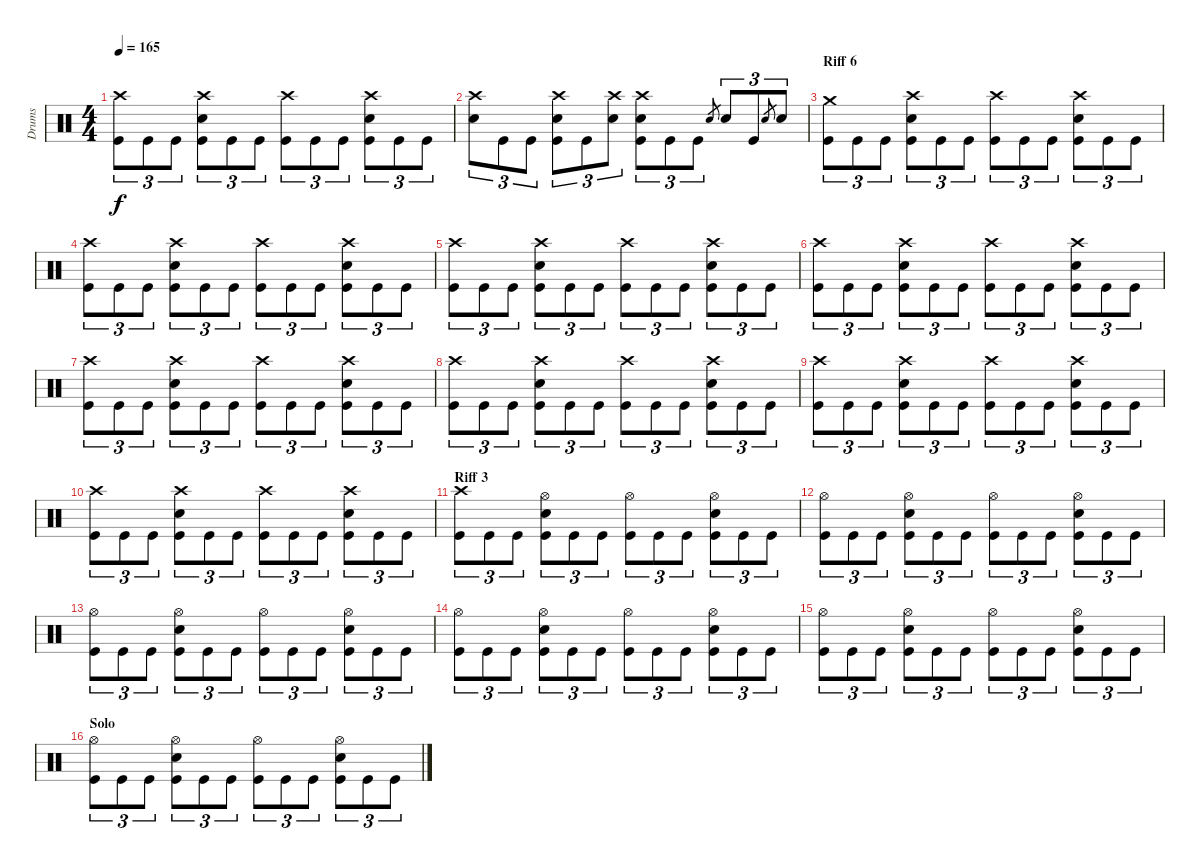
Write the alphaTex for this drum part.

\track ("Drums" "Drums") {instrument percussion}
\staff {score}
\articulation defaults
\ts (4 4)
\tempo 165
\clef neutral
\ks c
("Crash high (hit)" "Kick (hit)").8{tu (3 2) dy f} "Kick (hit)".8{tu (3 2)} "Kick (hit)".8{tu (3 2)} ("Crash high (hit)" "Electric Snare (hit)" "Kick (hit)").8{tu (3 2)} "Kick (hit)".8{tu (3 2)} "Kick (hit)".8{tu (3 2)} ("Crash high (hit)" "Kick (hit)").8{tu (3 2)} "Kick (hit)".8{tu (3 2)} "Kick (hit)".8{tu (3 2)} ("Crash high (hit)" "Electric Snare (hit)" "Kick (hit)").8{tu (3 2)} "Kick (hit)".8{tu (3 2)} "Kick (hit)".8{tu (3 2)} |
("Crash high (hit)" "Electric Snare (hit)").8{tu (3 2)} "Kick (hit)".8{tu (3 2)} "Kick (hit)".8{tu (3 2)} ("Crash high (hit)" "Electric Snare (hit)" "Kick (hit)").8{tu (3 2)} "Kick (hit)".8{tu (3 2)} ("Crash high (hit)" "Electric Snare (hit)").8{tu (3 2)} ("Crash high (hit)" "Electric Snare (hit)" "Kick (hit)").8{tu (3 2)} "Kick (hit)".8{tu (3 2)} "Kick (hit)".8{tu (3 2)} "Electric Snare (hit)".8{gr} "Electric Snare (hit)".8{tu (3 2)} "Kick (hit)".8{tu (3 2)} "Electric Snare (hit)".8{gr} "Electric Snare (hit)".8{tu (3 2)} |
\section ("" "Riff 6")
("Crash medium (hit)" "Kick (hit)").8{tu (3 2)} "Kick (hit)".8{tu (3 2)} "Kick (hit)".8{tu (3 2)} ("Crash high (hit)" "Electric Snare (hit)" "Kick (hit)").8{tu (3 2)} "Kick (hit)".8{tu (3 2)} "Kick (hit)".8{tu (3 2)} ("Crash high (hit)" "Kick (hit)").8{tu (3 2)} "Kick (hit)".8{tu (3 2)} "Kick (hit)".8{tu (3 2)} ("Crash high (hit)" "Electric Snare (hit)" "Kick (hit)").8{tu (3 2)} "Kick (hit)".8{tu (3 2)} "Kick (hit)".8{tu (3 2)} |
("Crash high (hit)" "Kick (hit)").8{tu (3 2)} "Kick (hit)".8{tu (3 2)} "Kick (hit)".8{tu (3 2)} ("Crash high (hit)" "Electric Snare (hit)" "Kick (hit)").8{tu (3 2)} "Kick (hit)".8{tu (3 2)} "Kick (hit)".8{tu (3 2)} ("Crash high (hit)" "Kick (hit)").8{tu (3 2)} "Kick (hit)".8{tu (3 2)} "Kick (hit)".8{tu (3 2)} ("Crash high (hit)" "Electric Snare (hit)" "Kick (hit)").8{tu (3 2)} "Kick (hit)".8{tu (3 2)} "Kick (hit)".8{tu (3 2)} |
("Crash high (hit)" "Kick (hit)").8{tu (3 2)} "Kick (hit)".8{tu (3 2)} "Kick (hit)".8{tu (3 2)} ("Crash high (hit)" "Electric Snare (hit)" "Kick (hit)").8{tu (3 2)} "Kick (hit)".8{tu (3 2)} "Kick (hit)".8{tu (3 2)} ("Crash high (hit)" "Kick (hit)").8{tu (3 2)} "Kick (hit)".8{tu (3 2)} "Kick (hit)".8{tu (3 2)} ("Crash high (hit)" "Electric Snare (hit)" "Kick (hit)").8{tu (3 2)} "Kick (hit)".8{tu (3 2)} "Kick (hit)".8{tu (3 2)} |
("Crash high (hit)" "Kick (hit)").8{tu (3 2)} "Kick (hit)".8{tu (3 2)} "Kick (hit)".8{tu (3 2)} ("Crash high (hit)" "Electric Snare (hit)" "Kick (hit)").8{tu (3 2)} "Kick (hit)".8{tu (3 2)} "Kick (hit)".8{tu (3 2)} ("Crash high (hit)" "Kick (hit)").8{tu (3 2)} "Kick (hit)".8{tu (3 2)} "Kick (hit)".8{tu (3 2)} ("Crash high (hit)" "Electric Snare (hit)" "Kick (hit)").8{tu (3 2)} "Kick (hit)".8{tu (3 2)} "Kick (hit)".8{tu (3 2)} |
("Crash high (hit)" "Kick (hit)").8{tu (3 2)} "Kick (hit)".8{tu (3 2)} "Kick (hit)".8{tu (3 2)} ("Crash high (hit)" "Electric Snare (hit)" "Kick (hit)").8{tu (3 2)} "Kick (hit)".8{tu (3 2)} "Kick (hit)".8{tu (3 2)} ("Crash high (hit)" "Kick (hit)").8{tu (3 2)} "Kick (hit)".8{tu (3 2)} "Kick (hit)".8{tu (3 2)} ("Crash high (hit)" "Electric Snare (hit)" "Kick (hit)").8{tu (3 2)} "Kick (hit)".8{tu (3 2)} "Kick (hit)".8{tu (3 2)} |
("Crash high (hit)" "Kick (hit)").8{tu (3 2)} "Kick (hit)".8{tu (3 2)} "Kick (hit)".8{tu (3 2)} ("Crash high (hit)" "Electric Snare (hit)" "Kick (hit)").8{tu (3 2)} "Kick (hit)".8{tu (3 2)} "Kick (hit)".8{tu (3 2)} ("Crash high (hit)" "Kick (hit)").8{tu (3 2)} "Kick (hit)".8{tu (3 2)} "Kick (hit)".8{tu (3 2)} ("Crash high (hit)" "Electric Snare (hit)" "Kick (hit)").8{tu (3 2)} "Kick (hit)".8{tu (3 2)} "Kick (hit)".8{tu (3 2)} |
("Crash high (hit)" "Kick (hit)").8{tu (3 2)} "Kick (hit)".8{tu (3 2)} "Kick (hit)".8{tu (3 2)} ("Crash high (hit)" "Electric Snare (hit)" "Kick (hit)").8{tu (3 2)} "Kick (hit)".8{tu (3 2)} "Kick (hit)".8{tu (3 2)} ("Crash high (hit)" "Kick (hit)").8{tu (3 2)} "Kick (hit)".8{tu (3 2)} "Kick (hit)".8{tu (3 2)} ("Crash high (hit)" "Electric Snare (hit)" "Kick (hit)").8{tu (3 2)} "Kick (hit)".8{tu (3 2)} "Kick (hit)".8{tu (3 2)} |
("Crash high (hit)" "Kick (hit)").8{tu (3 2)} "Kick (hit)".8{tu (3 2)} "Kick (hit)".8{tu (3 2)} ("Crash high (hit)" "Electric Snare (hit)" "Kick (hit)").8{tu (3 2)} "Kick (hit)".8{tu (3 2)} "Kick (hit)".8{tu (3 2)} ("Crash high (hit)" "Kick (hit)").8{tu (3 2)} "Kick (hit)".8{tu (3 2)} "Kick (hit)".8{tu (3 2)} ("Crash high (hit)" "Electric Snare (hit)" "Kick (hit)").8{tu (3 2)} "Kick (hit)".8{tu (3 2)} "Kick (hit)".8{tu (3 2)} |
\section ("" "Riff 3")
("Crash high (hit)" "Kick (hit)").8{tu (3 2)} "Kick (hit)".8{tu (3 2)} "Kick (hit)".8{tu (3 2)} ("Hi-Hat (open)" "Electric Snare (hit)" "Kick (hit)").8{tu (3 2)} "Kick (hit)".8{tu (3 2)} "Kick (hit)".8{tu (3 2)} ("Hi-Hat (open)" "Kick (hit)").8{tu (3 2)} "Kick (hit)".8{tu (3 2)} "Kick (hit)".8{tu (3 2)} ("Hi-Hat (open)" "Electric Snare (hit)" "Kick (hit)").8{tu (3 2)} "Kick (hit)".8{tu (3 2)} "Kick (hit)".8{tu (3 2)} |
("Hi-Hat (open)" "Kick (hit)").8{tu (3 2)} "Kick (hit)".8{tu (3 2)} "Kick (hit)".8{tu (3 2)} ("Hi-Hat (open)" "Electric Snare (hit)" "Kick (hit)").8{tu (3 2)} "Kick (hit)".8{tu (3 2)} "Kick (hit)".8{tu (3 2)} ("Hi-Hat (open)" "Kick (hit)").8{tu (3 2)} "Kick (hit)".8{tu (3 2)} "Kick (hit)".8{tu (3 2)} ("Hi-Hat (open)" "Electric Snare (hit)" "Kick (hit)").8{tu (3 2)} "Kick (hit)".8{tu (3 2)} "Kick (hit)".8{tu (3 2)} |
("Hi-Hat (open)" "Kick (hit)").8{tu (3 2)} "Kick (hit)".8{tu (3 2)} "Kick (hit)".8{tu (3 2)} ("Hi-Hat (open)" "Electric Snare (hit)" "Kick (hit)").8{tu (3 2)} "Kick (hit)".8{tu (3 2)} "Kick (hit)".8{tu (3 2)} ("Hi-Hat (open)" "Kick (hit)").8{tu (3 2)} "Kick (hit)".8{tu (3 2)} "Kick (hit)".8{tu (3 2)} ("Hi-Hat (open)" "Electric Snare (hit)" "Kick (hit)").8{tu (3 2)} "Kick (hit)".8{tu (3 2)} "Kick (hit)".8{tu (3 2)} |
("Hi-Hat (open)" "Kick (hit)").8{tu (3 2)} "Kick (hit)".8{tu (3 2)} "Kick (hit)".8{tu (3 2)} ("Hi-Hat (open)" "Electric Snare (hit)" "Kick (hit)").8{tu (3 2)} "Kick (hit)".8{tu (3 2)} "Kick (hit)".8{tu (3 2)} ("Hi-Hat (open)" "Kick (hit)").8{tu (3 2)} "Kick (hit)".8{tu (3 2)} "Kick (hit)".8{tu (3 2)} ("Hi-Hat (open)" "Electric Snare (hit)" "Kick (hit)").8{tu (3 2)} "Kick (hit)".8{tu (3 2)} "Kick (hit)".8{tu (3 2)} |
("Hi-Hat (open)" "Kick (hit)").8{tu (3 2)} "Kick (hit)".8{tu (3 2)} "Kick (hit)".8{tu (3 2)} ("Hi-Hat (open)" "Electric Snare (hit)" "Kick (hit)").8{tu (3 2)} "Kick (hit)".8{tu (3 2)} "Kick (hit)".8{tu (3 2)} ("Hi-Hat (open)" "Kick (hit)").8{tu (3 2)} "Kick (hit)".8{tu (3 2)} "Kick (hit)".8{tu (3 2)} ("Hi-Hat (open)" "Electric Snare (hit)" "Kick (hit)").8{tu (3 2)} "Kick (hit)".8{tu (3 2)} "Kick (hit)".8{tu (3 2)} |
\section ("" "Solo")
("Hi-Hat (open)" "Kick (hit)").8{tu (3 2)} "Kick (hit)".8{tu (3 2)} "Kick (hit)".8{tu (3 2)} ("Hi-Hat (open)" "Electric Snare (hit)" "Kick (hit)").8{tu (3 2)} "Kick (hit)".8{tu (3 2)} "Kick (hit)".8{tu (3 2)} ("Hi-Hat (open)" "Kick (hit)").8{tu (3 2)} "Kick (hit)".8{tu (3 2)} "Kick (hit)".8{tu (3 2)} ("Hi-Hat (open)" "Electric Snare (hit)" "Kick (hit)").8{tu (3 2)} "Kick (hit)".8{tu (3 2)} "Kick (hit)".8{tu (3 2)}
